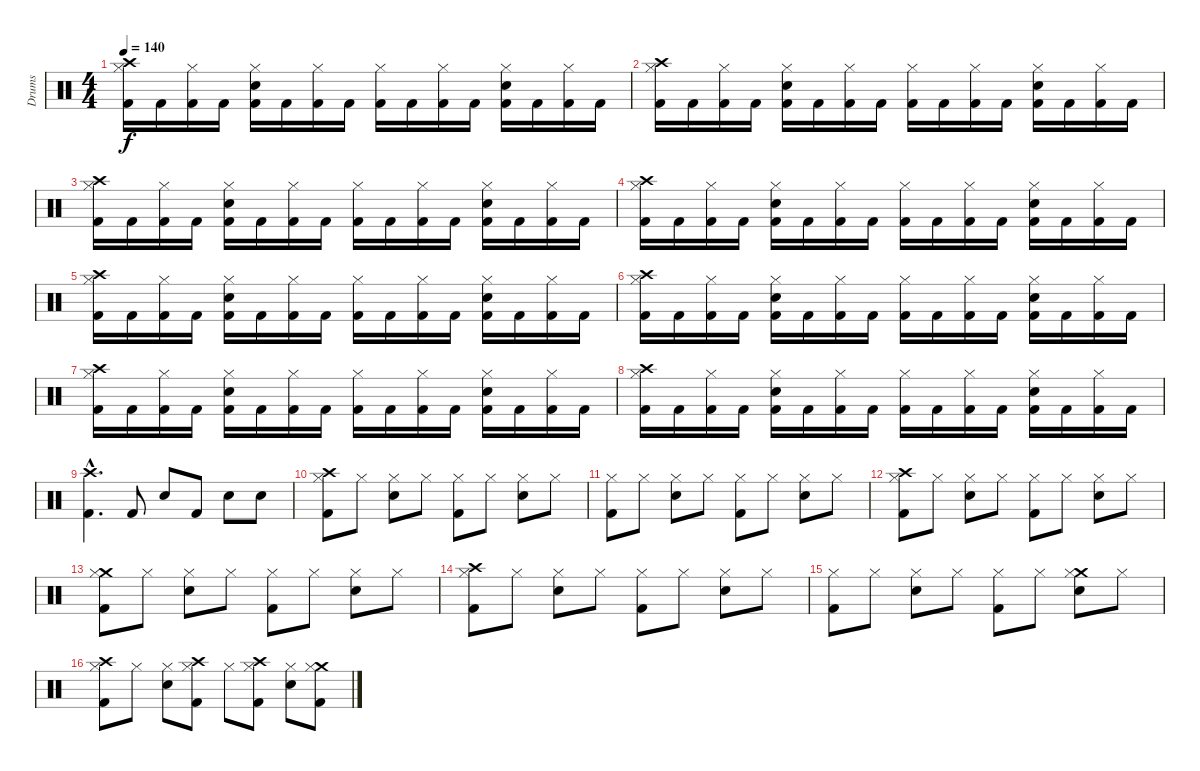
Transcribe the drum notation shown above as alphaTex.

\track ("Drums" "Drums") {instrument percussion}
\staff {score}
\articulation defaults
\ts (4 4)
\tempo 140
\clef neutral
\ks c
("Hi-Hat (closed)" "Crash high (hit)" "Kick (hit) 2").16{dy f} "Kick (hit) 2".16 ("Hi-Hat (closed)" "Kick (hit) 2").16 "Kick (hit) 2".16 ("Hi-Hat (closed)" "Electric Snare (hit)" "Kick (hit) 2").16 "Kick (hit) 2".16 ("Hi-Hat (closed)" "Kick (hit) 2").16 "Kick (hit) 2".16 ("Hi-Hat (closed)" "Kick (hit) 2").16 "Kick (hit) 2".16 ("Hi-Hat (closed)" "Kick (hit) 2").16 "Kick (hit) 2".16 ("Hi-Hat (closed)" "Electric Snare (hit)" "Kick (hit) 2").16 "Kick (hit) 2".16 ("Hi-Hat (closed)" "Kick (hit) 2").16 "Kick (hit) 2".16 |
("Hi-Hat (closed)" "Crash high (hit)" "Kick (hit) 2").16 "Kick (hit) 2".16 ("Hi-Hat (closed)" "Kick (hit) 2").16 "Kick (hit) 2".16 ("Hi-Hat (closed)" "Electric Snare (hit)" "Kick (hit) 2").16 "Kick (hit) 2".16 ("Hi-Hat (closed)" "Kick (hit) 2").16 "Kick (hit) 2".16 ("Hi-Hat (closed)" "Kick (hit) 2").16 "Kick (hit) 2".16 ("Hi-Hat (closed)" "Kick (hit) 2").16 "Kick (hit) 2".16 ("Hi-Hat (closed)" "Electric Snare (hit)" "Kick (hit) 2").16 "Kick (hit) 2".16 ("Hi-Hat (closed)" "Kick (hit) 2").16 "Kick (hit) 2".16 |
("Hi-Hat (closed)" "Crash high (hit)" "Kick (hit) 2").16 "Kick (hit) 2".16 ("Hi-Hat (closed)" "Kick (hit) 2").16 "Kick (hit) 2".16 ("Hi-Hat (closed)" "Electric Snare (hit)" "Kick (hit) 2").16 "Kick (hit) 2".16 ("Hi-Hat (closed)" "Kick (hit) 2").16 "Kick (hit) 2".16 ("Hi-Hat (closed)" "Kick (hit) 2").16 "Kick (hit) 2".16 ("Hi-Hat (closed)" "Kick (hit) 2").16 "Kick (hit) 2".16 ("Hi-Hat (closed)" "Electric Snare (hit)" "Kick (hit) 2").16 "Kick (hit) 2".16 ("Hi-Hat (closed)" "Kick (hit) 2").16 "Kick (hit) 2".16 |
("Hi-Hat (closed)" "Crash high (hit)" "Kick (hit) 2").16 "Kick (hit) 2".16 ("Hi-Hat (closed)" "Kick (hit) 2").16 "Kick (hit) 2".16 ("Hi-Hat (closed)" "Electric Snare (hit)" "Kick (hit) 2").16 "Kick (hit) 2".16 ("Hi-Hat (closed)" "Kick (hit) 2").16 "Kick (hit) 2".16 ("Hi-Hat (closed)" "Kick (hit) 2").16 "Kick (hit) 2".16 ("Hi-Hat (closed)" "Kick (hit) 2").16 "Kick (hit) 2".16 ("Hi-Hat (closed)" "Electric Snare (hit)" "Kick (hit) 2").16 "Kick (hit) 2".16 ("Hi-Hat (closed)" "Kick (hit) 2").16 "Kick (hit) 2".16 |
("Hi-Hat (closed)" "Crash high (hit)" "Kick (hit) 2").16 "Kick (hit) 2".16 ("Hi-Hat (closed)" "Kick (hit) 2").16 "Kick (hit) 2".16 ("Hi-Hat (closed)" "Electric Snare (hit)" "Kick (hit) 2").16 "Kick (hit) 2".16 ("Hi-Hat (closed)" "Kick (hit) 2").16 "Kick (hit) 2".16 ("Hi-Hat (closed)" "Kick (hit) 2").16 "Kick (hit) 2".16 ("Hi-Hat (closed)" "Kick (hit) 2").16 "Kick (hit) 2".16 ("Hi-Hat (closed)" "Electric Snare (hit)" "Kick (hit) 2").16 "Kick (hit) 2".16 ("Hi-Hat (closed)" "Kick (hit) 2").16 "Kick (hit) 2".16 |
("Hi-Hat (closed)" "Crash high (hit)" "Kick (hit) 2").16 "Kick (hit) 2".16 ("Hi-Hat (closed)" "Kick (hit) 2").16 "Kick (hit) 2".16 ("Hi-Hat (closed)" "Electric Snare (hit)" "Kick (hit) 2").16 "Kick (hit) 2".16 ("Hi-Hat (closed)" "Kick (hit) 2").16 "Kick (hit) 2".16 ("Hi-Hat (closed)" "Kick (hit) 2").16 "Kick (hit) 2".16 ("Hi-Hat (closed)" "Kick (hit) 2").16 "Kick (hit) 2".16 ("Hi-Hat (closed)" "Electric Snare (hit)" "Kick (hit) 2").16 "Kick (hit) 2".16 ("Hi-Hat (closed)" "Kick (hit) 2").16 "Kick (hit) 2".16 |
("Hi-Hat (closed)" "Crash high (hit)" "Kick (hit) 2").16 "Kick (hit) 2".16 ("Hi-Hat (closed)" "Kick (hit) 2").16 "Kick (hit) 2".16 ("Hi-Hat (closed)" "Electric Snare (hit)" "Kick (hit) 2").16 "Kick (hit) 2".16 ("Hi-Hat (closed)" "Kick (hit) 2").16 "Kick (hit) 2".16 ("Hi-Hat (closed)" "Kick (hit) 2").16 "Kick (hit) 2".16 ("Hi-Hat (closed)" "Kick (hit) 2").16 "Kick (hit) 2".16 ("Hi-Hat (closed)" "Electric Snare (hit)" "Kick (hit) 2").16 "Kick (hit) 2".16 ("Hi-Hat (closed)" "Kick (hit) 2").16 "Kick (hit) 2".16 |
("Hi-Hat (closed)" "Crash high (hit)" "Kick (hit) 2").16 "Kick (hit) 2".16 ("Hi-Hat (closed)" "Kick (hit) 2").16 "Kick (hit) 2".16 ("Hi-Hat (closed)" "Electric Snare (hit)" "Kick (hit) 2").16 "Kick (hit) 2".16 ("Hi-Hat (closed)" "Kick (hit) 2").16 "Kick (hit) 2".16 ("Hi-Hat (closed)" "Kick (hit) 2").16 "Kick (hit) 2".16 ("Hi-Hat (closed)" "Kick (hit) 2").16 "Kick (hit) 2".16 ("Hi-Hat (closed)" "Electric Snare (hit)" "Kick (hit) 2").16 "Kick (hit) 2".16 ("Hi-Hat (closed)" "Kick (hit) 2").16 "Kick (hit) 2".16 |
("Crash high (hit)"{hac} "Kick (hit) 2"{hac}).4{d} "Kick (hit) 2".8 "Electric Snare (hit)".8 "Kick (hit) 2".8 "Electric Snare (hit)".8 "Electric Snare (hit)".8 |
("Crash high (hit)" "Hi-Hat (closed)" "Kick (hit) 2").8 "Hi-Hat (closed)".8 ("Hi-Hat (closed)" "Electric Snare (hit)").8 "Hi-Hat (closed)".8 ("Hi-Hat (closed)" "Kick (hit) 2").8 "Hi-Hat (closed)".8 ("Hi-Hat (closed)" "Electric Snare (hit)").8 "Hi-Hat (closed)".8 |
("Hi-Hat (closed)" "Kick (hit) 2").8 "Hi-Hat (closed)".8 ("Hi-Hat (closed)" "Electric Snare (hit)").8 "Hi-Hat (closed)".8 ("Hi-Hat (closed)" "Kick (hit) 2").8 "Hi-Hat (closed)".8 ("Hi-Hat (closed)" "Electric Snare (hit)").8 "Hi-Hat (closed)".8 |
("Crash high (hit)" "Hi-Hat (closed)" "Kick (hit) 2").8 "Hi-Hat (closed)".8 ("Hi-Hat (closed)" "Electric Snare (hit)").8 "Hi-Hat (closed)".8 ("Hi-Hat (closed)" "Kick (hit) 2").8 "Hi-Hat (closed)".8 ("Hi-Hat (closed)" "Electric Snare (hit)").8 "Hi-Hat (closed)".8 |
("Crash medium (hit)" "Hi-Hat (closed)" "Kick (hit) 2").8 "Hi-Hat (closed)".8 ("Hi-Hat (closed)" "Electric Snare (hit)").8 "Hi-Hat (closed)".8 ("Hi-Hat (closed)" "Kick (hit) 2").8 "Hi-Hat (closed)".8 ("Hi-Hat (closed)" "Electric Snare (hit)").8 "Hi-Hat (closed)".8 |
("Crash high (hit)" "Hi-Hat (closed)" "Kick (hit) 2").8 "Hi-Hat (closed)".8 ("Hi-Hat (closed)" "Electric Snare (hit)").8 "Hi-Hat (closed)".8 ("Hi-Hat (closed)" "Kick (hit) 2").8 "Hi-Hat (closed)".8 ("Hi-Hat (closed)" "Electric Snare (hit)").8 "Hi-Hat (closed)".8 |
("Hi-Hat (closed)" "Kick (hit) 2").8 "Hi-Hat (closed)".8 ("Hi-Hat (closed)" "Electric Snare (hit)").8 "Hi-Hat (closed)".8 ("Hi-Hat (closed)" "Kick (hit) 2").8 "Hi-Hat (closed)".8 ("Crash medium (hit)" "Hi-Hat (closed)" "Electric Snare (hit)").8 "Hi-Hat (closed)".8 |
("Crash high (hit)" "Hi-Hat (closed)" "Kick (hit) 2").8 "Hi-Hat (closed)".8 ("Hi-Hat (closed)" "Electric Snare (hit)").8 ("Crash high (hit)" "Hi-Hat (closed)" "Kick (hit) 2").8 "Hi-Hat (closed)".8 ("Crash high (hit)" "Hi-Hat (closed)" "Kick (hit) 2").8 ("Hi-Hat (closed)" "Electric Snare (hit)").8 ("Crash medium (hit)" "Hi-Hat (closed)" "Kick (hit) 2").8
